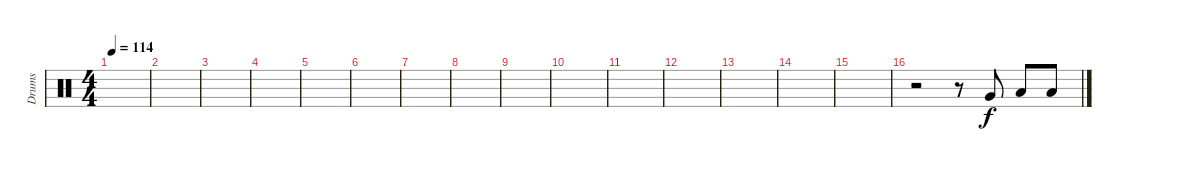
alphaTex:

\track ("Drums" "Drums") {instrument percussion}
\staff {score}
\articulation defaults
\ts (4 4)
\tempo 114
\clef neutral
\ks c
|
|
|
|
|
|
|
|
|
|
|
|
|
|
|
r.2 r.8 "Very Low Tom (hit)".8 "Low Tom (hit)".8 "Low Tom (hit)".8
